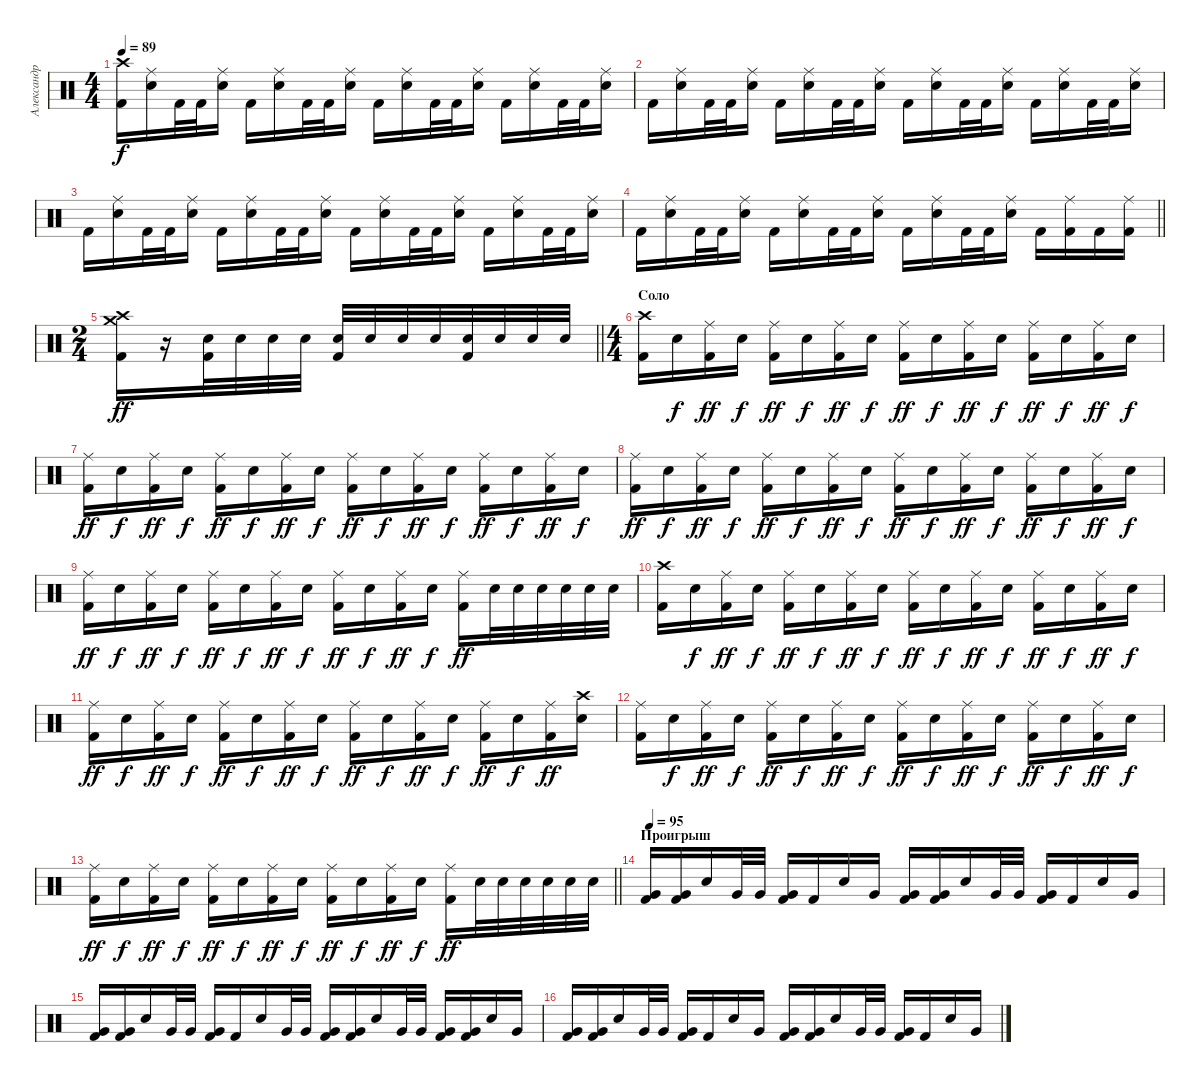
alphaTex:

\track ("Александр \"Поручик\" Щиголев" "Александр ") {instrument percussion}
\staff {score}
\articulation defaults
\ts (4 4)
\tempo 89
\clef neutral
\ks c
("Crash high (hit)" "Kick (hit) 2").16{dy f} ("Ride (middle)" "Electric Snare (hit)").16 "Kick (hit) 2".32 "Kick (hit) 2".32 ("Ride (middle)" "Electric Snare (hit)").16 "Kick (hit) 2".16 ("Ride (middle)" "Electric Snare (hit)").16 "Kick (hit) 2".32 "Kick (hit) 2".32 ("Ride (middle)" "Electric Snare (hit)").16 "Kick (hit) 2".16 ("Ride (middle)" "Electric Snare (hit)").16 "Kick (hit) 2".32 "Kick (hit) 2".32 ("Ride (middle)" "Electric Snare (hit)").16 "Kick (hit) 2".16 ("Ride (middle)" "Electric Snare (hit)").16 "Kick (hit) 2".32 "Kick (hit) 2".32 ("Ride (middle)" "Electric Snare (hit)").16 |
"Kick (hit) 2".16 ("Ride (middle)" "Electric Snare (hit)").16 "Kick (hit) 2".32 "Kick (hit) 2".32 ("Ride (middle)" "Electric Snare (hit)").16 "Kick (hit) 2".16 ("Ride (middle)" "Electric Snare (hit)").16 "Kick (hit) 2".32 "Kick (hit) 2".32 ("Ride (middle)" "Electric Snare (hit)").16 "Kick (hit) 2".16 ("Ride (middle)" "Electric Snare (hit)").16 "Kick (hit) 2".32 "Kick (hit) 2".32 ("Ride (middle)" "Electric Snare (hit)").16 "Kick (hit) 2".16 ("Ride (middle)" "Electric Snare (hit)").16 "Kick (hit) 2".32 "Kick (hit) 2".32 ("Ride (middle)" "Electric Snare (hit)").16 |
"Kick (hit) 2".16 ("Ride (middle)" "Electric Snare (hit)").16 "Kick (hit) 2".32 "Kick (hit) 2".32 ("Ride (middle)" "Electric Snare (hit)").16 "Kick (hit) 2".16 ("Ride (middle)" "Electric Snare (hit)").16 "Kick (hit) 2".32 "Kick (hit) 2".32 ("Ride (middle)" "Electric Snare (hit)").16 "Kick (hit) 2".16 ("Ride (middle)" "Electric Snare (hit)").16 "Kick (hit) 2".32 "Kick (hit) 2".32 ("Ride (middle)" "Electric Snare (hit)").16 "Kick (hit) 2".16 ("Ride (middle)" "Electric Snare (hit)").16 "Kick (hit) 2".32 "Kick (hit) 2".32 ("Ride (middle)" "Electric Snare (hit)").16 |
\barLineRight lightlight "Kick (hit) 2".16
("Ride (middle)" "Electric Snare (hit)").16 "Kick (hit) 2".32 "Kick (hit) 2".32 ("Ride (middle)" "Electric Snare (hit)").16 "Kick (hit) 2".16 ("Ride (middle)" "Electric Snare (hit)").16 "Kick (hit) 2".32 "Kick (hit) 2".32 ("Ride (middle)" "Electric Snare (hit)").16 "Kick (hit) 2".16 ("Ride (middle)" "Electric Snare (hit)").16 "Kick (hit) 2".32 "Kick (hit) 2".32 ("Ride (middle)" "Electric Snare (hit)").16 "Kick (hit) 2".16 ("Ride (middle)" "Kick (hit) 2").16 "Kick (hit) 2".16 ("Ride (middle)" "Kick (hit) 2").16 |
\ts (2 4)
\barLineRight lightlight
("Crash medium (hit)" "Kick (hit) 2" "Crash high (hit)").16{dy ff} r.16 ("Electric Snare (hit)" "Kick (hit) 2").32 "Electric Snare (hit)".32 "Electric Snare (hit)".32 "Electric Snare (hit)".32 ("Electric Snare (hit)" "Kick (hit) 2").32 "Electric Snare (hit)".32 "Electric Snare (hit)".32 "Electric Snare (hit)".32 ("Electric Snare (hit)" "Kick (hit) 2").32 "Electric Snare (hit)".32 "Electric Snare (hit)".32 "Electric Snare (hit)".32 |
\ts (4 4)
\section ("" "Соло")
("Crash high (hit)" "Kick (hit) 2").16 "Electric Snare (hit)".16{dy f} ("Ride (middle)" "Kick (hit) 2").16{dy ff} "Electric Snare (hit)".16{dy f} ("Ride (middle)" "Kick (hit) 2").16{dy ff} "Electric Snare (hit)".16{dy f} ("Ride (middle)" "Kick (hit) 2").16{dy ff} "Electric Snare (hit)".16{dy f} ("Ride (middle)" "Kick (hit) 2").16{dy ff} "Electric Snare (hit)".16{dy f} ("Ride (middle)" "Kick (hit) 2").16{dy ff} "Electric Snare (hit)".16{dy f} ("Ride (middle)" "Kick (hit) 2").16{dy ff} "Electric Snare (hit)".16{dy f} ("Ride (middle)" "Kick (hit) 2").16{dy ff} "Electric Snare (hit)".16{dy f} |
("Ride (middle)" "Kick (hit) 2").16{dy ff} "Electric Snare (hit)".16{dy f} ("Ride (middle)" "Kick (hit) 2").16{dy ff} "Electric Snare (hit)".16{dy f} ("Ride (middle)" "Kick (hit) 2").16{dy ff} "Electric Snare (hit)".16{dy f} ("Ride (middle)" "Kick (hit) 2").16{dy ff} "Electric Snare (hit)".16{dy f} ("Ride (middle)" "Kick (hit) 2").16{dy ff} "Electric Snare (hit)".16{dy f} ("Ride (middle)" "Kick (hit) 2").16{dy ff} "Electric Snare (hit)".16{dy f} ("Ride (middle)" "Kick (hit) 2").16{dy ff} "Electric Snare (hit)".16{dy f} ("Ride (middle)" "Kick (hit) 2").16{dy ff} "Electric Snare (hit)".16{dy f} |
("Ride (middle)" "Kick (hit) 2").16{dy ff} "Electric Snare (hit)".16{dy f} ("Ride (middle)" "Kick (hit) 2").16{dy ff} "Electric Snare (hit)".16{dy f} ("Ride (middle)" "Kick (hit) 2").16{dy ff} "Electric Snare (hit)".16{dy f} ("Ride (middle)" "Kick (hit) 2").16{dy ff} "Electric Snare (hit)".16{dy f} ("Ride (middle)" "Kick (hit) 2").16{dy ff} "Electric Snare (hit)".16{dy f} ("Ride (middle)" "Kick (hit) 2").16{dy ff} "Electric Snare (hit)".16{dy f} ("Ride (middle)" "Kick (hit) 2").16{dy ff} "Electric Snare (hit)".16{dy f} ("Ride (middle)" "Kick (hit) 2").16{dy ff} "Electric Snare (hit)".16{dy f} |
("Ride (middle)" "Kick (hit) 2").16{dy ff} "Electric Snare (hit)".16{dy f} ("Ride (middle)" "Kick (hit) 2").16{dy ff} "Electric Snare (hit)".16{dy f} ("Ride (middle)" "Kick (hit) 2").16{dy ff} "Electric Snare (hit)".16{dy f} ("Ride (middle)" "Kick (hit) 2").16{dy ff} "Electric Snare (hit)".16{dy f} ("Ride (middle)" "Kick (hit) 2").16{dy ff} "Electric Snare (hit)".16{dy f} ("Ride (middle)" "Kick (hit) 2").16{dy ff} "Electric Snare (hit)".16{dy f} ("Ride (middle)" "Kick (hit) 2").16{dy ff} "Electric Snare (hit)".32 "Electric Snare (hit)".32 "Electric Snare (hit)".32 "Electric Snare (hit)".32 "Electric Snare (hit)".32 "Electric Snare (hit)".32 |
("Crash high (hit)" "Kick (hit) 2").16 "Electric Snare (hit)".16{dy f} ("Ride (middle)" "Kick (hit) 2").16{dy ff} "Electric Snare (hit)".16{dy f} ("Ride (middle)" "Kick (hit) 2").16{dy ff} "Electric Snare (hit)".16{dy f} ("Ride (middle)" "Kick (hit) 2").16{dy ff} "Electric Snare (hit)".16{dy f} ("Ride (middle)" "Kick (hit) 2").16{dy ff} "Electric Snare (hit)".16{dy f} ("Ride (middle)" "Kick (hit) 2").16{dy ff} "Electric Snare (hit)".16{dy f} ("Ride (middle)" "Kick (hit) 2").16{dy ff} "Electric Snare (hit)".16{dy f} ("Ride (middle)" "Kick (hit) 2").16{dy ff} "Electric Snare (hit)".16{dy f} |
("Ride (middle)" "Kick (hit) 2").16{dy ff} "Electric Snare (hit)".16{dy f} ("Ride (middle)" "Kick (hit) 2").16{dy ff} "Electric Snare (hit)".16{dy f} ("Ride (middle)" "Kick (hit) 2").16{dy ff} "Electric Snare (hit)".16{dy f} ("Ride (middle)" "Kick (hit) 2").16{dy ff} "Electric Snare (hit)".16{dy f} ("Ride (middle)" "Kick (hit) 2").16{dy ff} "Electric Snare (hit)".16{dy f} ("Ride (middle)" "Kick (hit) 2").16{dy ff} "Electric Snare (hit)".16{dy f} ("Ride (middle)" "Kick (hit) 2").16{dy ff} "Electric Snare (hit)".16{dy f} ("Ride (middle)" "Kick (hit) 2").16{dy ff} ("Crash high (hit)" "Electric Snare (hit)").16 |
("Ride (middle)" "Kick (hit) 2").16 "Electric Snare (hit)".16{dy f} ("Ride (middle)" "Kick (hit) 2").16{dy ff} "Electric Snare (hit)".16{dy f} ("Ride (middle)" "Kick (hit) 2").16{dy ff} "Electric Snare (hit)".16{dy f} ("Ride (middle)" "Kick (hit) 2").16{dy ff} "Electric Snare (hit)".16{dy f} ("Ride (middle)" "Kick (hit) 2").16{dy ff} "Electric Snare (hit)".16{dy f} ("Ride (middle)" "Kick (hit) 2").16{dy ff} "Electric Snare (hit)".16{dy f} ("Ride (middle)" "Kick (hit) 2").16{dy ff} "Electric Snare (hit)".16{dy f} ("Ride (middle)" "Kick (hit) 2").16{dy ff} "Electric Snare (hit)".16{dy f} |
\barLineRight lightlight
("Ride (middle)" "Kick (hit) 2").16{dy ff} "Electric Snare (hit)".16{dy f} ("Ride (middle)" "Kick (hit) 2").16{dy ff} "Electric Snare (hit)".16{dy f} ("Ride (middle)" "Kick (hit) 2").16{dy ff} "Electric Snare (hit)".16{dy f} ("Ride (middle)" "Kick (hit) 2").16{dy ff} "Electric Snare (hit)".16{dy f} ("Ride (middle)" "Kick (hit) 2").16{dy ff} "Electric Snare (hit)".16{dy f} ("Ride (middle)" "Kick (hit) 2").16{dy ff} "Electric Snare (hit)".16{dy f} ("Ride (middle)" "Kick (hit) 2").16{dy ff} "Electric Snare (hit)".32 "Electric Snare (hit)".32 "Electric Snare (hit)".32 "Electric Snare (hit)".32 "Electric Snare (hit)".32 "Electric Snare (hit)".32 |
\section ("" "Проигрыш")
\tempo 95
("Very Low Tom (hit)" "Kick (hit) 2").16 ("Very Low Tom (hit)" "Kick (hit) 2").16 "Electric Snare (hit)".16 "Very Low Tom (hit)".32 "Very Low Tom (hit)".32 ("Very Low Tom (hit)" "Kick (hit) 2").16 "Kick (hit) 2".16 "Electric Snare (hit)".16 "Very Low Tom (hit)".16 ("Very Low Tom (hit)" "Kick (hit) 2").16 ("Very Low Tom (hit)" "Kick (hit) 2").16 "Electric Snare (hit)".16 "Very Low Tom (hit)".32 "Very Low Tom (hit)".32 ("Very Low Tom (hit)" "Kick (hit) 2").16 "Kick (hit) 2".16 "Electric Snare (hit)".16 "Very Low Tom (hit)".16 |
("Very Low Tom (hit)" "Kick (hit) 2").16 ("Very Low Tom (hit)" "Kick (hit) 2").16 "Electric Snare (hit)".16 "Very Low Tom (hit)".32 "Very Low Tom (hit)".32 ("Very Low Tom (hit)" "Kick (hit) 2").16 "Kick (hit) 2".16 "Electric Snare (hit)".16 "Very Low Tom (hit)".32 "Very Low Tom (hit)".32 ("Very Low Tom (hit)" "Kick (hit) 2").16 ("Very Low Tom (hit)" "Kick (hit) 2").16 "Electric Snare (hit)".16 "Very Low Tom (hit)".32 "Very Low Tom (hit)".32 ("Very Low Tom (hit)" "Kick (hit) 2").16 ("Very Low Tom (hit)" "Kick (hit) 2").16 "Electric Snare (hit)".16 "Very Low Tom (hit)".16 |
("Very Low Tom (hit)" "Kick (hit) 2").16 ("Very Low Tom (hit)" "Kick (hit) 2").16 "Electric Snare (hit)".16 "Very Low Tom (hit)".32 "Very Low Tom (hit)".32 ("Very Low Tom (hit)" "Kick (hit) 2").16 "Kick (hit) 2".16 "Electric Snare (hit)".16 "Very Low Tom (hit)".16 ("Very Low Tom (hit)" "Kick (hit) 2").16 ("Very Low Tom (hit)" "Kick (hit) 2").16 "Electric Snare (hit)".16 "Very Low Tom (hit)".32 "Very Low Tom (hit)".32 ("Very Low Tom (hit)" "Kick (hit) 2").16 "Kick (hit) 2".16 "Electric Snare (hit)".16 "Very Low Tom (hit)".16
